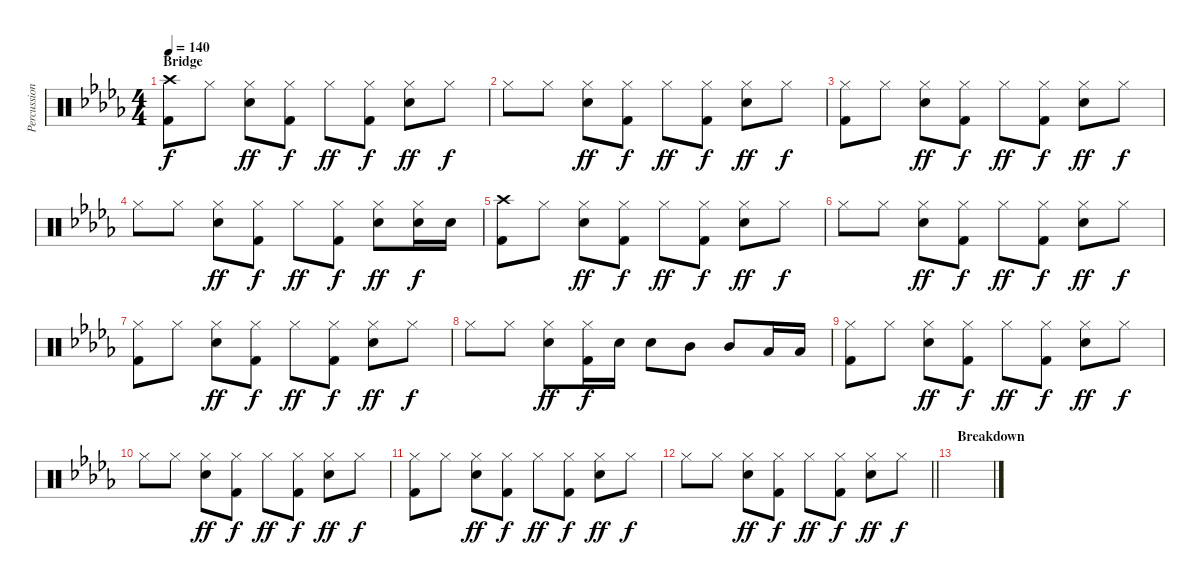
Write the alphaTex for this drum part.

\track ("Percussion" "Percussion") {instrument percussion}
\staff {score}
\articulation defaults
\ts (4 4)
\section ("" "Bridge")
\tempo 140
\clef neutral
\ks db
("Crash high (hit)" "Kick (hit) 2").8{dy f} "Hi-Hat (closed)".8 ("Hi-Hat (closed)" "Snare (hit) 2").8{dy ff} ("Hi-Hat (closed)" "Kick (hit) 2").8{dy f} "Hi-Hat (closed)".8{dy ff} ("Hi-Hat (closed)" "Kick (hit) 2").8{dy f} ("Hi-Hat (closed)" "Snare (hit) 2").8{dy ff} "Hi-Hat (closed)".8{dy f} |
"Hi-Hat (closed)".8 "Hi-Hat (closed)".8 ("Hi-Hat (closed)" "Snare (hit) 2").8{dy ff} ("Hi-Hat (closed)" "Kick (hit) 2").8{dy f} "Hi-Hat (closed)".8{dy ff} ("Hi-Hat (closed)" "Kick (hit) 2").8{dy f} ("Hi-Hat (closed)" "Snare (hit) 2").8{dy ff} "Hi-Hat (closed)".8{dy f} |
("Hi-Hat (closed)" "Kick (hit) 2").8 "Hi-Hat (closed)".8 ("Hi-Hat (closed)" "Snare (hit) 2").8{dy ff} ("Hi-Hat (closed)" "Kick (hit) 2").8{dy f} "Hi-Hat (closed)".8{dy ff} ("Hi-Hat (closed)" "Kick (hit) 2").8{dy f} ("Hi-Hat (closed)" "Snare (hit) 2").8{dy ff} "Hi-Hat (closed)".8{dy f} |
"Hi-Hat (closed)".8 "Hi-Hat (closed)".8 ("Hi-Hat (closed)" "Snare (hit) 2").8{dy ff} ("Hi-Hat (closed)" "Kick (hit) 2").8{dy f} "Hi-Hat (closed)".8{dy ff} ("Hi-Hat (closed)" "Kick (hit) 2").8{dy f} ("Hi-Hat (closed)" "Snare (hit) 2").8{dy ff} ("Hi-Hat (closed)" "Snare (hit) 2").16{dy f} "Snare (hit) 2".16 |
("Crash high (hit)" "Kick (hit) 2").8 "Hi-Hat (closed)".8 ("Hi-Hat (closed)" "Snare (hit) 2").8{dy ff} ("Hi-Hat (closed)" "Kick (hit) 2").8{dy f} "Hi-Hat (closed)".8{dy ff} ("Hi-Hat (closed)" "Kick (hit) 2").8{dy f} ("Hi-Hat (closed)" "Snare (hit) 2").8{dy ff} "Hi-Hat (closed)".8{dy f} |
"Hi-Hat (closed)".8 "Hi-Hat (closed)".8 ("Hi-Hat (closed)" "Snare (hit) 2").8{dy ff} ("Hi-Hat (closed)" "Kick (hit) 2").8{dy f} "Hi-Hat (closed)".8{dy ff} ("Hi-Hat (closed)" "Kick (hit) 2").8{dy f} ("Hi-Hat (closed)" "Snare (hit) 2").8{dy ff} "Hi-Hat (closed)".8{dy f} |
("Hi-Hat (closed)" "Kick (hit) 2").8 "Hi-Hat (closed)".8 ("Hi-Hat (closed)" "Snare (hit) 2").8{dy ff} ("Hi-Hat (closed)" "Kick (hit) 2").8{dy f} "Hi-Hat (closed)".8{dy ff} ("Hi-Hat (closed)" "Kick (hit) 2").8{dy f} ("Hi-Hat (closed)" "Snare (hit) 2").8{dy ff} "Hi-Hat (closed)".8{dy f} |
"Hi-Hat (closed)".8 "Hi-Hat (closed)".8 ("Hi-Hat (closed)" "Snare (hit) 2").8{dy ff} ("Hi-Hat (closed)" "Kick (hit) 2").16{dy f} "Snare (hit) 2".16 "Snare (hit) 2".8 "Mid Tom (hit)".8 "Mid Tom (hit)".8 "Low Tom (hit)".16 "Low Tom (hit)".16 |
("Hi-Hat (closed)" "Kick (hit) 2").8 "Hi-Hat (closed)".8 ("Hi-Hat (closed)" "Snare (hit) 2").8{dy ff} ("Hi-Hat (closed)" "Kick (hit) 2").8{dy f} "Hi-Hat (closed)".8{dy ff} ("Hi-Hat (closed)" "Kick (hit) 2").8{dy f} ("Hi-Hat (closed)" "Snare (hit) 2").8{dy ff} "Hi-Hat (closed)".8{dy f} |
"Hi-Hat (closed)".8 "Hi-Hat (closed)".8 ("Hi-Hat (closed)" "Snare (hit) 2").8{dy ff} ("Hi-Hat (closed)" "Kick (hit) 2").8{dy f} "Hi-Hat (closed)".8{dy ff} ("Hi-Hat (closed)" "Kick (hit) 2").8{dy f} ("Hi-Hat (closed)" "Snare (hit) 2").8{dy ff} "Hi-Hat (closed)".8{dy f} |
("Hi-Hat (closed)" "Kick (hit) 2").8 "Hi-Hat (closed)".8 ("Hi-Hat (closed)" "Snare (hit) 2").8{dy ff} ("Hi-Hat (closed)" "Kick (hit) 2").8{dy f} "Hi-Hat (closed)".8{dy ff} ("Hi-Hat (closed)" "Kick (hit) 2").8{dy f} ("Hi-Hat (closed)" "Snare (hit) 2").8{dy ff} "Hi-Hat (closed)".8{dy f} |
\barLineRight lightlight "Hi-Hat (closed)".8 "Hi-Hat (closed)".8
("Hi-Hat (closed)" "Snare (hit) 2").8{dy ff} ("Hi-Hat (closed)" "Kick (hit) 2").8{dy f} "Hi-Hat (closed)".8{dy ff} ("Hi-Hat (closed)" "Kick (hit) 2").8{dy f} ("Hi-Hat (closed)" "Snare (hit) 2").8{dy ff} "Hi-Hat (closed)".8{dy f} |
\section ("" "Breakdown")
